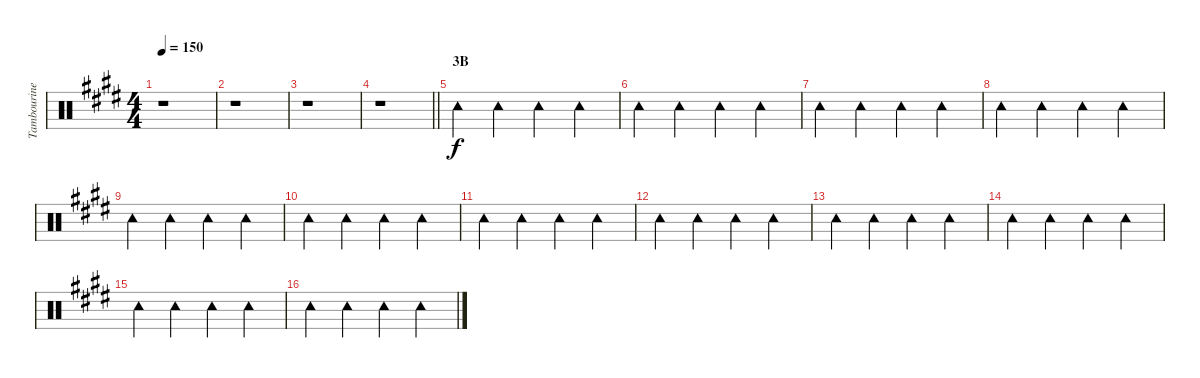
\track ("Tambourine" "Tambourine") {instrument percussion}
\staff {score}
\articulation defaults
\ts (4 4)
\tempo 150
\clef neutral
\ks e
r.1{dy f} |
r.1 |
r.1 |
\barLineRight lightlight
r.1 |
\section ("" "3B")
"Tambourine (hit)".4 "Tambourine (hit)".4 "Tambourine (hit)".4 "Tambourine (hit)".4 |
"Tambourine (hit)".4 "Tambourine (hit)".4 "Tambourine (hit)".4 "Tambourine (hit)".4 |
"Tambourine (hit)".4 "Tambourine (hit)".4 "Tambourine (hit)".4 "Tambourine (hit)".4 |
"Tambourine (hit)".4 "Tambourine (hit)".4 "Tambourine (hit)".4 "Tambourine (hit)".4 |
"Tambourine (hit)".4 "Tambourine (hit)".4 "Tambourine (hit)".4 "Tambourine (hit)".4 |
"Tambourine (hit)".4 "Tambourine (hit)".4 "Tambourine (hit)".4 "Tambourine (hit)".4 |
"Tambourine (hit)".4 "Tambourine (hit)".4 "Tambourine (hit)".4 "Tambourine (hit)".4 |
"Tambourine (hit)".4 "Tambourine (hit)".4 "Tambourine (hit)".4 "Tambourine (hit)".4 |
"Tambourine (hit)".4 "Tambourine (hit)".4 "Tambourine (hit)".4 "Tambourine (hit)".4 |
"Tambourine (hit)".4 "Tambourine (hit)".4 "Tambourine (hit)".4 "Tambourine (hit)".4 |
"Tambourine (hit)".4 "Tambourine (hit)".4 "Tambourine (hit)".4 "Tambourine (hit)".4 |
"Tambourine (hit)".4 "Tambourine (hit)".4 "Tambourine (hit)".4 "Tambourine (hit)".4
